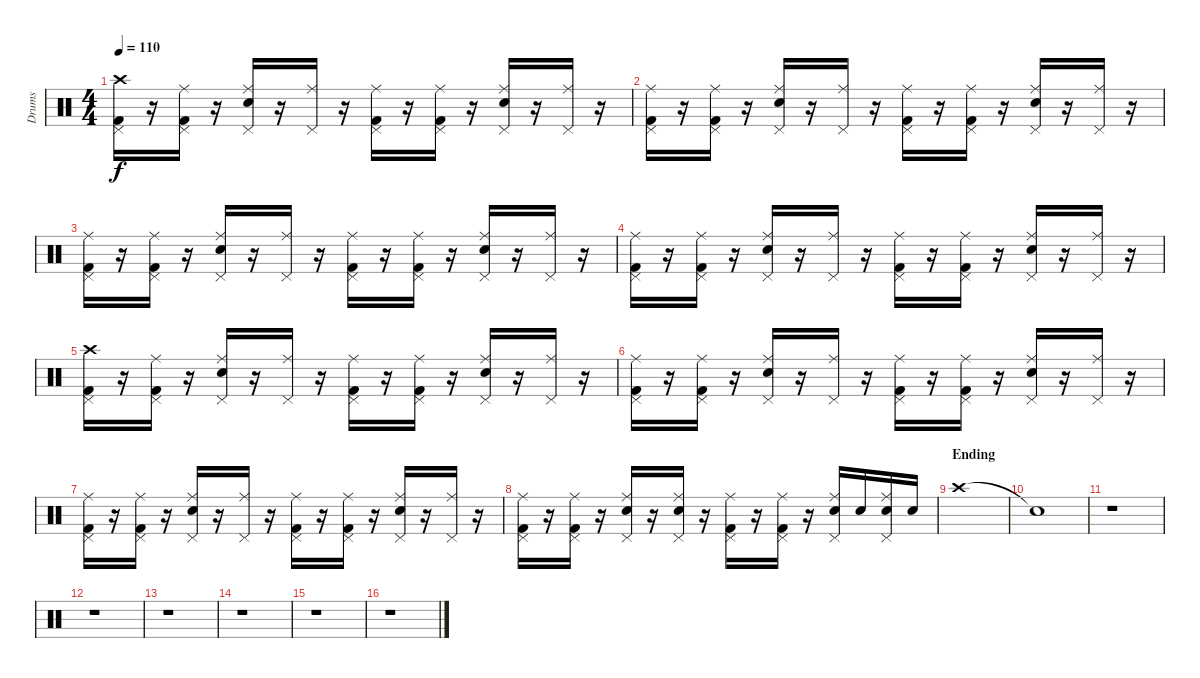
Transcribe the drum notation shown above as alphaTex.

\track ("Drums" "Drums") {instrument percussion}
\staff {score}
\articulation defaults
\ts (4 4)
\tempo 110
\clef neutral
\ks c
("Crash high (hit)" "Kick (hit) 2" "Pedal Hi-Hat (hit)").16{dy f} r.16 ("Ride (middle)" "Kick (hit) 2" "Pedal Hi-Hat (hit)").16 r.16 ("Ride (middle)" "Electric Snare (hit)" "Pedal Hi-Hat (hit)").16 r.16 ("Ride (middle)" "Pedal Hi-Hat (hit)").16 r.16 ("Ride (middle)" "Kick (hit) 2" "Pedal Hi-Hat (hit)").16 r.16 ("Ride (middle)" "Kick (hit) 2" "Pedal Hi-Hat (hit)").16 r.16 ("Ride (middle)" "Electric Snare (hit)" "Pedal Hi-Hat (hit)").16 r.16 ("Ride (middle)" "Pedal Hi-Hat (hit)").16 r.16 |
("Ride (middle)" "Kick (hit) 2" "Pedal Hi-Hat (hit)").16 r.16 ("Ride (middle)" "Kick (hit) 2" "Pedal Hi-Hat (hit)").16 r.16 ("Ride (middle)" "Electric Snare (hit)" "Pedal Hi-Hat (hit)").16 r.16 ("Ride (middle)" "Pedal Hi-Hat (hit)").16 r.16 ("Ride (middle)" "Kick (hit) 2" "Pedal Hi-Hat (hit)").16 r.16 ("Ride (middle)" "Kick (hit) 2" "Pedal Hi-Hat (hit)").16 r.16 ("Ride (middle)" "Electric Snare (hit)" "Pedal Hi-Hat (hit)").16 r.16 ("Ride (middle)" "Pedal Hi-Hat (hit)").16 r.16 |
("Ride (middle)" "Kick (hit) 2" "Pedal Hi-Hat (hit)").16 r.16 ("Ride (middle)" "Kick (hit) 2" "Pedal Hi-Hat (hit)").16 r.16 ("Ride (middle)" "Electric Snare (hit)" "Pedal Hi-Hat (hit)").16 r.16 ("Ride (middle)" "Pedal Hi-Hat (hit)").16 r.16 ("Ride (middle)" "Kick (hit) 2" "Pedal Hi-Hat (hit)").16 r.16 ("Ride (middle)" "Kick (hit) 2" "Pedal Hi-Hat (hit)").16 r.16 ("Ride (middle)" "Electric Snare (hit)" "Pedal Hi-Hat (hit)").16 r.16 ("Ride (middle)" "Pedal Hi-Hat (hit)").16 r.16 |
("Ride (middle)" "Kick (hit) 2" "Pedal Hi-Hat (hit)").16 r.16 ("Ride (middle)" "Kick (hit) 2" "Pedal Hi-Hat (hit)").16 r.16 ("Ride (middle)" "Electric Snare (hit)" "Pedal Hi-Hat (hit)").16 r.16 ("Ride (middle)" "Pedal Hi-Hat (hit)").16 r.16 ("Ride (middle)" "Kick (hit) 2" "Pedal Hi-Hat (hit)").16 r.16 ("Ride (middle)" "Kick (hit) 2" "Pedal Hi-Hat (hit)").16 r.16 ("Ride (middle)" "Electric Snare (hit)" "Pedal Hi-Hat (hit)").16 r.16 ("Ride (middle)" "Pedal Hi-Hat (hit)").16 r.16 |
("Crash high (hit)" "Kick (hit) 2" "Pedal Hi-Hat (hit)").16 r.16 ("Ride (middle)" "Kick (hit) 2" "Pedal Hi-Hat (hit)").16 r.16 ("Ride (middle)" "Electric Snare (hit)" "Pedal Hi-Hat (hit)").16 r.16 ("Ride (middle)" "Pedal Hi-Hat (hit)").16 r.16 ("Ride (middle)" "Kick (hit) 2" "Pedal Hi-Hat (hit)").16 r.16 ("Ride (middle)" "Kick (hit) 2" "Pedal Hi-Hat (hit)").16 r.16 ("Ride (middle)" "Electric Snare (hit)" "Pedal Hi-Hat (hit)").16 r.16 ("Ride (middle)" "Pedal Hi-Hat (hit)").16 r.16 |
("Ride (middle)" "Kick (hit) 2" "Pedal Hi-Hat (hit)").16 r.16 ("Ride (middle)" "Kick (hit) 2" "Pedal Hi-Hat (hit)").16 r.16 ("Ride (middle)" "Electric Snare (hit)" "Pedal Hi-Hat (hit)").16 r.16 ("Ride (middle)" "Pedal Hi-Hat (hit)").16 r.16 ("Ride (middle)" "Kick (hit) 2" "Pedal Hi-Hat (hit)").16 r.16 ("Ride (middle)" "Kick (hit) 2" "Pedal Hi-Hat (hit)").16 r.16 ("Ride (middle)" "Electric Snare (hit)" "Pedal Hi-Hat (hit)").16 r.16 ("Ride (middle)" "Pedal Hi-Hat (hit)").16 r.16 |
("Ride (middle)" "Kick (hit) 2" "Pedal Hi-Hat (hit)").16 r.16 ("Ride (middle)" "Kick (hit) 2" "Pedal Hi-Hat (hit)").16 r.16 ("Ride (middle)" "Electric Snare (hit)" "Pedal Hi-Hat (hit)").16 r.16 ("Ride (middle)" "Pedal Hi-Hat (hit)").16 r.16 ("Ride (middle)" "Kick (hit) 2" "Pedal Hi-Hat (hit)").16 r.16 ("Ride (middle)" "Kick (hit) 2" "Pedal Hi-Hat (hit)").16 r.16 ("Ride (middle)" "Electric Snare (hit)" "Pedal Hi-Hat (hit)").16 r.16 ("Ride (middle)" "Pedal Hi-Hat (hit)").16 r.16 |
("Ride (middle)" "Kick (hit) 2" "Pedal Hi-Hat (hit)").16 r.16 ("Ride (middle)" "Kick (hit) 2" "Pedal Hi-Hat (hit)").16 r.16 ("Ride (middle)" "Electric Snare (hit)" "Pedal Hi-Hat (hit)").16 r.16 ("Ride (middle)" "Electric Snare (hit)" "Pedal Hi-Hat (hit)").16 r.16 ("Ride (middle)" "Kick (hit) 2" "Pedal Hi-Hat (hit)").16 r.16 ("Ride (middle)" "Kick (hit) 2" "Pedal Hi-Hat (hit)").16 r.16 ("Ride (middle)" "Electric Snare (hit)" "Pedal Hi-Hat (hit)").16 "Electric Snare (hit)".16 ("Ride (middle)" "Electric Snare (hit)" "Pedal Hi-Hat (hit)").16 "Electric Snare (hit)".16 |
\section ("" "Ending")
"Crash high (hit)".1 |
"Snare (hit)"{t}.1 |
r.1 |
r.1 |
r.1 |
r.1 |
r.1 |
r.1
